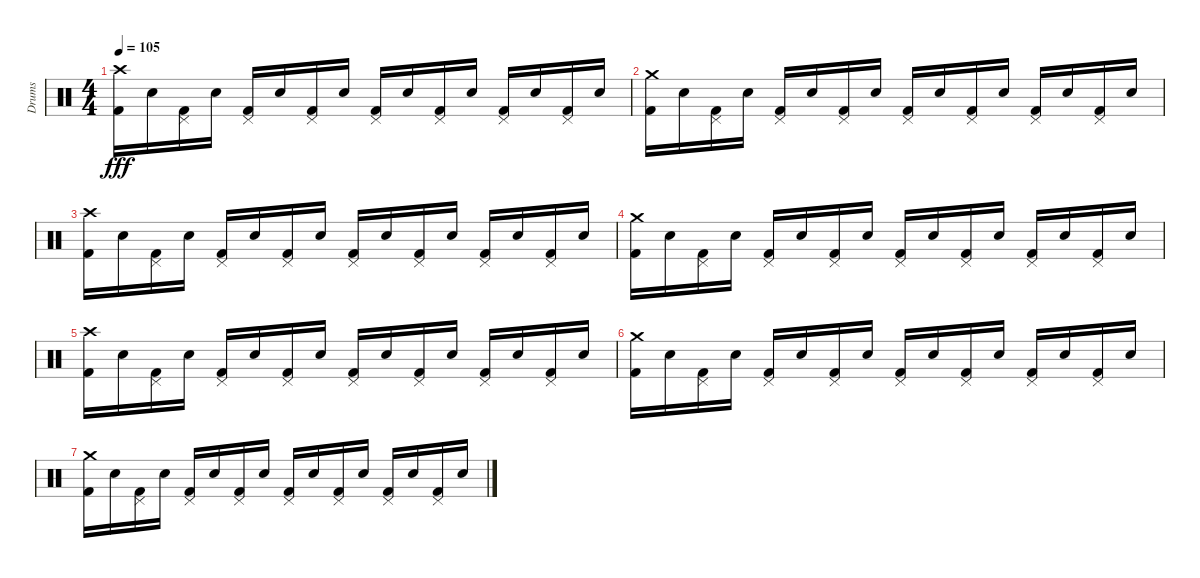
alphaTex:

\track ("Drums" "Drums") {instrument percussion}
\staff {score}
\articulation defaults
\ts (4 4)
\tempo 105
\clef neutral
\ks c
("Crash high (hit)" "Kick (hit) 2").16{dy fff} "Electric Snare (hit)".16 ("Pedal Hi-Hat (hit)" "Kick (hit) 2").16 "Electric Snare (hit)".16 ("Pedal Hi-Hat (hit)" "Kick (hit) 2").16 "Electric Snare (hit)".16 ("Pedal Hi-Hat (hit)" "Kick (hit) 2").16 "Electric Snare (hit)".16 ("Pedal Hi-Hat (hit)" "Kick (hit) 2").16 "Electric Snare (hit)".16 ("Pedal Hi-Hat (hit)" "Kick (hit) 2").16 "Electric Snare (hit)".16 ("Pedal Hi-Hat (hit)" "Kick (hit) 2").16 "Electric Snare (hit)".16 ("Pedal Hi-Hat (hit)" "Kick (hit) 2").16 "Electric Snare (hit)".16 |
("Crash medium (hit)" "Kick (hit) 2").16 "Electric Snare (hit)".16 ("Pedal Hi-Hat (hit)" "Kick (hit) 2").16 "Electric Snare (hit)".16 ("Pedal Hi-Hat (hit)" "Kick (hit) 2").16 "Electric Snare (hit)".16 ("Pedal Hi-Hat (hit)" "Kick (hit) 2").16 "Electric Snare (hit)".16 ("Pedal Hi-Hat (hit)" "Kick (hit) 2").16 "Electric Snare (hit)".16 ("Pedal Hi-Hat (hit)" "Kick (hit) 2").16 "Electric Snare (hit)".16 ("Pedal Hi-Hat (hit)" "Kick (hit) 2").16 "Electric Snare (hit)".16 ("Pedal Hi-Hat (hit)" "Kick (hit) 2").16 "Electric Snare (hit)".16 |
("Crash high (hit)" "Kick (hit) 2").16 "Electric Snare (hit)".16 ("Pedal Hi-Hat (hit)" "Kick (hit) 2").16 "Electric Snare (hit)".16 ("Pedal Hi-Hat (hit)" "Kick (hit) 2").16 "Electric Snare (hit)".16 ("Pedal Hi-Hat (hit)" "Kick (hit) 2").16 "Electric Snare (hit)".16 ("Pedal Hi-Hat (hit)" "Kick (hit) 2").16 "Electric Snare (hit)".16 ("Pedal Hi-Hat (hit)" "Kick (hit) 2").16 "Electric Snare (hit)".16 ("Pedal Hi-Hat (hit)" "Kick (hit) 2").16 "Electric Snare (hit)".16 ("Pedal Hi-Hat (hit)" "Kick (hit) 2").16 "Electric Snare (hit)".16 |
("Crash medium (hit)" "Kick (hit) 2").16 "Electric Snare (hit)".16 ("Pedal Hi-Hat (hit)" "Kick (hit) 2").16 "Electric Snare (hit)".16 ("Pedal Hi-Hat (hit)" "Kick (hit) 2").16 "Electric Snare (hit)".16 ("Pedal Hi-Hat (hit)" "Kick (hit) 2").16 "Electric Snare (hit)".16 ("Pedal Hi-Hat (hit)" "Kick (hit) 2").16 "Electric Snare (hit)".16 ("Pedal Hi-Hat (hit)" "Kick (hit) 2").16 "Electric Snare (hit)".16 ("Pedal Hi-Hat (hit)" "Kick (hit) 2").16 "Electric Snare (hit)".16 ("Pedal Hi-Hat (hit)" "Kick (hit) 2").16 "Electric Snare (hit)".16 |
("Crash high (hit)" "Kick (hit) 2").16 "Electric Snare (hit)".16 ("Pedal Hi-Hat (hit)" "Kick (hit) 2").16 "Electric Snare (hit)".16 ("Pedal Hi-Hat (hit)" "Kick (hit) 2").16 "Electric Snare (hit)".16 ("Pedal Hi-Hat (hit)" "Kick (hit) 2").16 "Electric Snare (hit)".16 ("Pedal Hi-Hat (hit)" "Kick (hit) 2").16 "Electric Snare (hit)".16 ("Pedal Hi-Hat (hit)" "Kick (hit) 2").16 "Electric Snare (hit)".16 ("Pedal Hi-Hat (hit)" "Kick (hit) 2").16 "Electric Snare (hit)".16 ("Pedal Hi-Hat (hit)" "Kick (hit) 2").16 "Electric Snare (hit)".16 |
("Crash medium (hit)" "Kick (hit) 2").16 "Electric Snare (hit)".16 ("Pedal Hi-Hat (hit)" "Kick (hit) 2").16 "Electric Snare (hit)".16 ("Pedal Hi-Hat (hit)" "Kick (hit) 2").16 "Electric Snare (hit)".16 ("Pedal Hi-Hat (hit)" "Kick (hit) 2").16 "Electric Snare (hit)".16 ("Pedal Hi-Hat (hit)" "Kick (hit) 2").16 "Electric Snare (hit)".16 ("Pedal Hi-Hat (hit)" "Kick (hit) 2").16 "Electric Snare (hit)".16 ("Pedal Hi-Hat (hit)" "Kick (hit) 2").16 "Electric Snare (hit)".16 ("Pedal Hi-Hat (hit)" "Kick (hit) 2").16 "Electric Snare (hit)".16 |
("Crash medium (hit)" "Kick (hit) 2").16 "Electric Snare (hit)".16 ("Pedal Hi-Hat (hit)" "Kick (hit) 2").16 "Electric Snare (hit)".16 ("Pedal Hi-Hat (hit)" "Kick (hit) 2").16 "Electric Snare (hit)".16 ("Pedal Hi-Hat (hit)" "Kick (hit) 2").16 "Electric Snare (hit)".16 ("Pedal Hi-Hat (hit)" "Kick (hit) 2").16 "Electric Snare (hit)".16 ("Pedal Hi-Hat (hit)" "Kick (hit) 2").16 "Electric Snare (hit)".16 ("Pedal Hi-Hat (hit)" "Kick (hit) 2").16 "Electric Snare (hit)".16 ("Pedal Hi-Hat (hit)" "Kick (hit) 2").16 "Electric Snare (hit)".16
